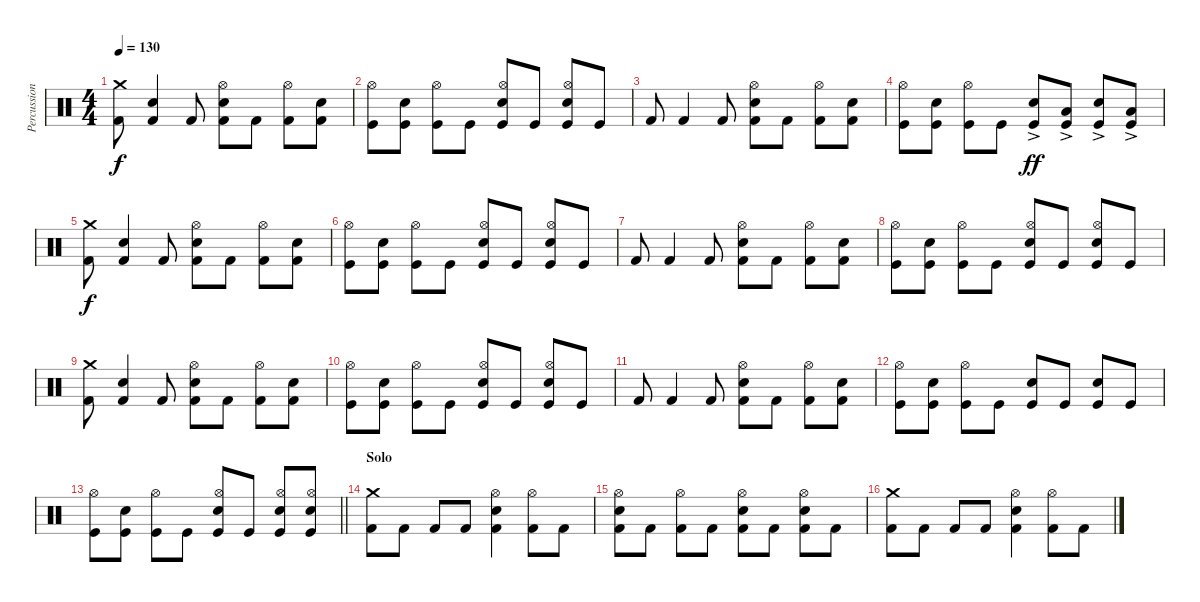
\track ("Percussion" "Percussion") {instrument percussion}
\staff {score}
\articulation defaults
\ts (4 4)
\tempo 130
\clef neutral
\ks c
("Crash medium (hit)" "Kick (hit) 2").8{dy f} ("Snare (hit) 2" "Kick (hit) 2").4 "Kick (hit) 2".8 ("Hi-Hat (open)" "Snare (hit) 2" "Kick (hit) 2").8 "Kick (hit) 2".8 ("Hi-Hat (open)" "Kick (hit) 2").8 ("Snare (hit) 2" "Kick (hit) 2").8 |
("Hi-Hat (open)" "Kick (hit)").8 ("Snare (hit) 2" "Kick (hit)").8 ("Hi-Hat (open)" "Kick (hit)").8 "Kick (hit)".8 ("Hi-Hat (open)" "Snare (hit) 2" "Kick (hit)").8 "Kick (hit)".8 ("Hi-Hat (open)" "Snare (hit) 2" "Kick (hit)").8 "Kick (hit)".8 |
"Kick (hit) 2".8 "Kick (hit) 2".4 "Kick (hit) 2".8 ("Hi-Hat (open)" "Snare (hit) 2" "Kick (hit) 2").8 "Kick (hit) 2".8 ("Hi-Hat (open)" "Kick (hit) 2").8 ("Snare (hit) 2" "Kick (hit) 2").8 |
("Hi-Hat (open)" "Kick (hit)").8 ("Snare (hit) 2" "Kick (hit)").8 ("Hi-Hat (open)" "Kick (hit)").8 "Kick (hit)".8 ("Snare (hit) 2"{ac} "Kick (hit)").8{dy ff} ("Low Floor Tom (hit)"{ac} "Kick (hit)").8 ("Snare (hit) 2"{ac} "Kick (hit)").8 ("Low Floor Tom (hit)"{ac} "Kick (hit)").8 |
("Crash medium (hit)" "Kick (hit) 2").8{dy f} ("Snare (hit) 2" "Kick (hit) 2").4 "Kick (hit) 2".8 ("Hi-Hat (open)" "Snare (hit) 2" "Kick (hit) 2").8 "Kick (hit) 2".8 ("Hi-Hat (open)" "Kick (hit) 2").8 ("Snare (hit) 2" "Kick (hit) 2").8 |
("Hi-Hat (open)" "Kick (hit)").8 ("Snare (hit) 2" "Kick (hit)").8 ("Hi-Hat (open)" "Kick (hit)").8 "Kick (hit)".8 ("Hi-Hat (open)" "Snare (hit) 2" "Kick (hit)").8 "Kick (hit)".8 ("Hi-Hat (open)" "Snare (hit) 2" "Kick (hit)").8 "Kick (hit)".8 |
"Kick (hit) 2".8 "Kick (hit) 2".4 "Kick (hit) 2".8 ("Hi-Hat (open)" "Snare (hit) 2" "Kick (hit) 2").8 "Kick (hit) 2".8 ("Hi-Hat (open)" "Kick (hit) 2").8 ("Snare (hit) 2" "Kick (hit) 2").8 |
("Hi-Hat (open)" "Kick (hit)").8 ("Snare (hit) 2" "Kick (hit)").8 ("Hi-Hat (open)" "Kick (hit)").8 "Kick (hit)".8 ("Hi-Hat (open)" "Snare (hit) 2" "Kick (hit)").8 "Kick (hit)".8 ("Hi-Hat (open)" "Snare (hit) 2" "Kick (hit)").8 "Kick (hit)".8 |
("Crash medium (hit)" "Kick (hit) 2").8 ("Snare (hit) 2" "Kick (hit) 2").4 "Kick (hit) 2".8 ("Hi-Hat (open)" "Snare (hit) 2" "Kick (hit) 2").8 "Kick (hit) 2".8 ("Hi-Hat (open)" "Kick (hit) 2").8 ("Snare (hit) 2" "Kick (hit) 2").8 |
("Hi-Hat (open)" "Kick (hit)").8 ("Snare (hit) 2" "Kick (hit)").8 ("Hi-Hat (open)" "Kick (hit)").8 "Kick (hit)".8 ("Hi-Hat (open)" "Snare (hit) 2" "Kick (hit)").8 "Kick (hit)".8 ("Hi-Hat (open)" "Snare (hit) 2" "Kick (hit)").8 "Kick (hit)".8 |
"Kick (hit) 2".8 "Kick (hit) 2".4 "Kick (hit) 2".8 ("Hi-Hat (open)" "Snare (hit) 2" "Kick (hit) 2").8 "Kick (hit) 2".8 ("Hi-Hat (open)" "Kick (hit) 2").8 ("Snare (hit) 2" "Kick (hit) 2").8 |
("Hi-Hat (open)" "Kick (hit)").8 ("Snare (hit) 2" "Kick (hit)").8 ("Hi-Hat (open)" "Kick (hit)").8 "Kick (hit)".8 ("Snare (hit) 2" "Kick (hit)").8 "Kick (hit)".8 ("Snare (hit) 2" "Kick (hit)").8 "Kick (hit)".8 |
\barLineRight lightlight
("Hi-Hat (open)" "Kick (hit)").8 ("Snare (hit) 2" "Kick (hit)").8 ("Hi-Hat (open)" "Kick (hit)").8 "Kick (hit)".8 ("Hi-Hat (open)" "Snare (hit) 2" "Kick (hit)").8 "Kick (hit)".8 ("Hi-Hat (open)" "Snare (hit) 2" "Kick (hit)").8 ("Hi-Hat (open)" "Snare (hit) 2" "Kick (hit)").8 |
\section ("" "Solo")
("Crash medium (hit)" "Kick (hit) 2").8 "Kick (hit) 2".8 "Kick (hit) 2".8 "Kick (hit) 2".8 ("Hi-Hat (open)" "Snare (hit) 2" "Kick (hit) 2").4 ("Hi-Hat (open)" "Kick (hit) 2").8 "Kick (hit) 2".8 |
("Hi-Hat (open)" "Snare (hit) 2" "Kick (hit) 2").8 "Kick (hit) 2".8 ("Hi-Hat (open)" "Kick (hit) 2").8 "Kick (hit) 2".8 ("Hi-Hat (open)" "Snare (hit) 2" "Kick (hit) 2").8 "Kick (hit) 2".8 ("Hi-Hat (open)" "Snare (hit) 2" "Kick (hit) 2").8 "Kick (hit) 2".8 |
("Crash medium (hit)" "Kick (hit) 2").8 "Kick (hit) 2".8 "Kick (hit) 2".8 "Kick (hit) 2".8 ("Hi-Hat (open)" "Snare (hit) 2" "Kick (hit) 2").4 ("Hi-Hat (open)" "Kick (hit) 2").8 "Kick (hit) 2".8
